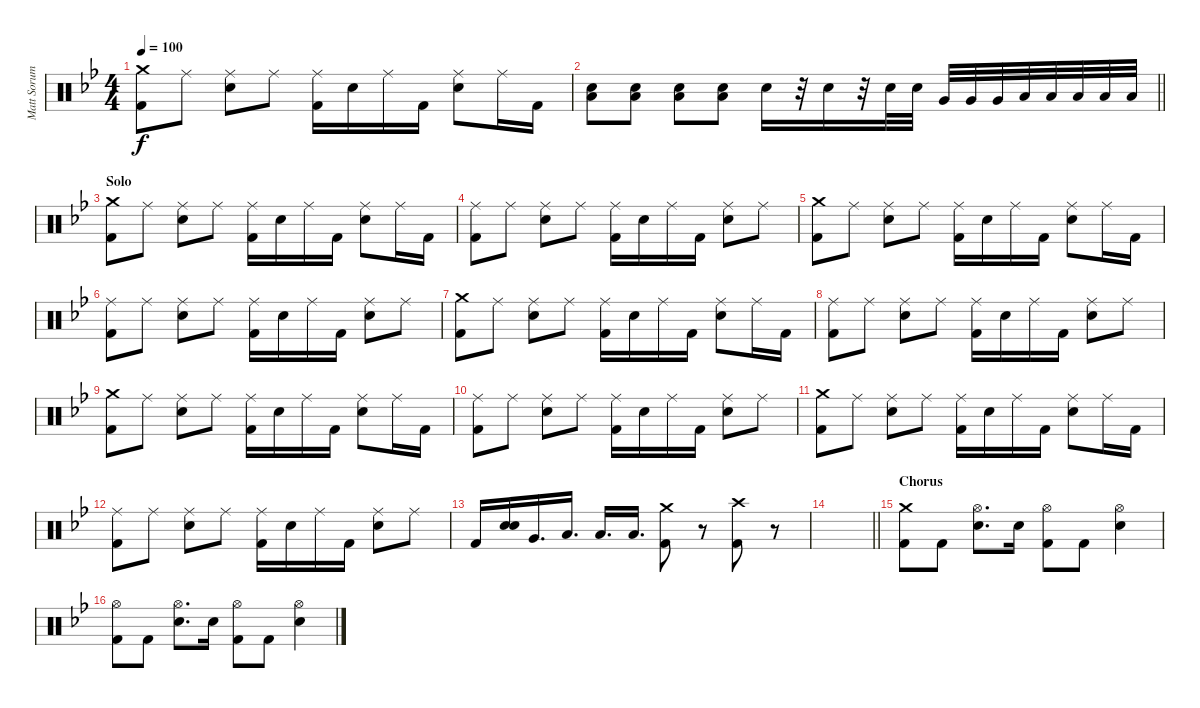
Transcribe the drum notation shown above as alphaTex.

\track ("Matt Sorum" "Matt Sorum") {instrument percussion}
\staff {score}
\articulation defaults
\ts (4 4)
\tempo 100
\clef neutral
\ks bb
("Crash medium (hit)" "Kick (hit) 2").8{dy f} "Ride (middle)".8 ("Ride (middle)" "Electric Snare (hit)").8 "Ride (middle)".8 ("Ride (middle)" "Kick (hit) 2").16 "Electric Snare (hit)".16 "Ride (middle)".16 "Kick (hit) 2".16 ("Ride (middle)" "Electric Snare (hit)").8 "Ride (middle)".16 "Kick (hit) 2".16 |
\barLineRight lightlight
("Low Floor Tom (hit)" "Electric Snare (hit)").8 ("Low Floor Tom (hit)" "Electric Snare (hit)").8 ("Low Floor Tom (hit)" "Electric Snare (hit)").8 ("Low Floor Tom (hit)" "Electric Snare (hit)").8 "Electric Snare (hit)".16 r.32 "Electric Snare (hit)".16 r.32 "Electric Snare (hit)".32 "Electric Snare (hit)".32 "Very Low Tom (hit)".32 "Very Low Tom (hit)".32 "Very Low Tom (hit)".32 "Low Floor Tom (hit)".32 "Low Floor Tom (hit)".32 "Low Floor Tom (hit)".32 "Low Floor Tom (hit)".32 "Low Floor Tom (hit)".32 |
\section ("" "Solo")
("Crash medium (hit)" "Kick (hit) 2").8 "Ride (middle)".8 ("Ride (middle)" "Electric Snare (hit)").8 "Ride (middle)".8 ("Ride (middle)" "Kick (hit) 2").16 "Electric Snare (hit)".16 "Ride (middle)".16 "Kick (hit) 2".16 ("Ride (middle)" "Electric Snare (hit)").8 "Ride (middle)".16 "Kick (hit) 2".16 |
("Ride (middle)" "Kick (hit) 2").8 "Ride (middle)".8 ("Ride (middle)" "Electric Snare (hit)").8 "Ride (middle)".8 ("Ride (middle)" "Kick (hit) 2").16 "Electric Snare (hit)".16 "Ride (middle)".16 "Kick (hit) 2".16 ("Ride (middle)" "Electric Snare (hit)").8 "Ride (middle)".8 |
("Crash medium (hit)" "Kick (hit) 2").8 "Ride (middle)".8 ("Ride (middle)" "Electric Snare (hit)").8 "Ride (middle)".8 ("Ride (middle)" "Kick (hit) 2").16 "Electric Snare (hit)".16 "Ride (middle)".16 "Kick (hit) 2".16 ("Ride (middle)" "Electric Snare (hit)").8 "Ride (middle)".16 "Kick (hit) 2".16 |
("Ride (middle)" "Kick (hit) 2").8 "Ride (middle)".8 ("Ride (middle)" "Electric Snare (hit)").8 "Ride (middle)".8 ("Ride (middle)" "Kick (hit) 2").16 "Electric Snare (hit)".16 "Ride (middle)".16 "Kick (hit) 2".16 ("Ride (middle)" "Electric Snare (hit)").8 "Ride (middle)".8 |
("Crash medium (hit)" "Kick (hit) 2").8 "Ride (middle)".8 ("Ride (middle)" "Electric Snare (hit)").8 "Ride (middle)".8 ("Ride (middle)" "Kick (hit) 2").16 "Electric Snare (hit)".16 "Ride (middle)".16 "Kick (hit) 2".16 ("Ride (middle)" "Electric Snare (hit)").8 "Ride (middle)".16 "Kick (hit) 2".16 |
("Ride (middle)" "Kick (hit) 2").8 "Ride (middle)".8 ("Ride (middle)" "Electric Snare (hit)").8 "Ride (middle)".8 ("Ride (middle)" "Kick (hit) 2").16 "Electric Snare (hit)".16 "Ride (middle)".16 "Kick (hit) 2".16 ("Ride (middle)" "Electric Snare (hit)").8 "Ride (middle)".8 |
("Crash medium (hit)" "Kick (hit) 2").8 "Ride (middle)".8 ("Ride (middle)" "Electric Snare (hit)").8 "Ride (middle)".8 ("Ride (middle)" "Kick (hit) 2").16 "Electric Snare (hit)".16 "Ride (middle)".16 "Kick (hit) 2".16 ("Ride (middle)" "Electric Snare (hit)").8 "Ride (middle)".16 "Kick (hit) 2".16 |
("Ride (middle)" "Kick (hit) 2").8 "Ride (middle)".8 ("Ride (middle)" "Electric Snare (hit)").8 "Ride (middle)".8 ("Ride (middle)" "Kick (hit) 2").16 "Electric Snare (hit)".16 "Ride (middle)".16 "Kick (hit) 2".16 ("Ride (middle)" "Electric Snare (hit)").8 "Ride (middle)".8 |
("Crash medium (hit)" "Kick (hit) 2").8 "Ride (middle)".8 ("Ride (middle)" "Electric Snare (hit)").8 "Ride (middle)".8 ("Ride (middle)" "Kick (hit) 2").16 "Electric Snare (hit)".16 "Ride (middle)".16 "Kick (hit) 2".16 ("Ride (middle)" "Electric Snare (hit)").8 "Ride (middle)".16 "Kick (hit) 2".16 |
("Ride (middle)" "Kick (hit) 2").8 "Ride (middle)".8 ("Ride (middle)" "Electric Snare (hit)").8 "Ride (middle)".8 ("Ride (middle)" "Kick (hit) 2").16 "Electric Snare (hit)".16 "Ride (middle)".16 "Kick (hit) 2".16 ("Ride (middle)" "Electric Snare (hit)").8 "Ride (middle)".8 |
"Kick (hit) 2".16 ("Electric Snare (hit)" "Electric Snare (hit)").16 "Very Low Tom (hit)".16{d} "Low Floor Tom (hit)".16{d} "Low Floor Tom (hit)".16{d} "Low Floor Tom (hit)".16{d} ("Crash medium (hit)" "Kick (hit) 2").8 r.8 ("Crash high (hit)" "Kick (hit) 2").8 r.8 |
\barLineRight lightlight
|
\section ("" "Chorus")
("Crash medium (hit)" "Kick (hit) 2").8 "Kick (hit) 2".8 ("Hi-Hat (open)" "Electric Snare (hit)").8{d} "Electric Snare (hit)".16 ("Hi-Hat (open)" "Kick (hit) 2").8 "Kick (hit) 2".8 ("Hi-Hat (open)" "Electric Snare (hit)").4 |
("Hi-Hat (open)" "Kick (hit) 2").8 "Kick (hit) 2".8 ("Hi-Hat (open)" "Electric Snare (hit)").8{d} "Electric Snare (hit)".16 ("Hi-Hat (open)" "Kick (hit) 2").8 "Kick (hit) 2".8 ("Hi-Hat (open)" "Electric Snare (hit)").4
